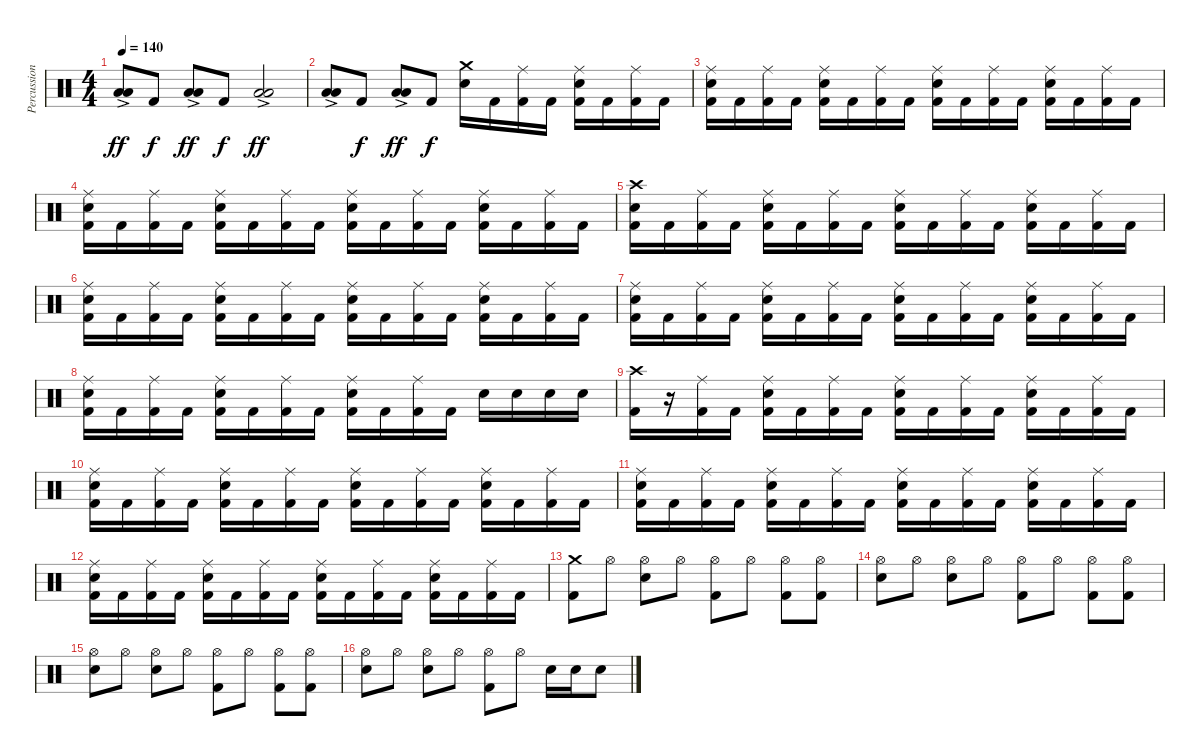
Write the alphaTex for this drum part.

\track ("Percussion" "Percussion") {instrument percussion}
\staff {score}
\articulation defaults
\ts (4 4)
\tempo 140
\clef neutral
\ks c
("Low Tom (hit)" "Low Floor Tom (hit)"{ac}).8{dy ff} "Kick (hit) 2".8{dy f} ("Low Tom (hit)" "Low Floor Tom (hit)"{ac}).8{dy ff} "Kick (hit) 2".8{dy f} ("Low Tom (hit)"{ac} "Low Floor Tom (hit)"{ac}).2{dy ff} |
("Low Tom (hit)" "Low Floor Tom (hit)"{ac}).8 "Kick (hit) 2".8{dy f} ("Low Tom (hit)" "Low Floor Tom (hit)"{ac}).8{dy ff} "Kick (hit) 2".8{dy f} ("Crash medium (hit)" "Electric Snare (hit)").16 "Kick (hit) 2".16 ("Ride (middle)" "Kick (hit) 2").16 "Kick (hit) 2".16 ("Ride (middle)" "Electric Snare (hit)" "Kick (hit) 2").16 "Kick (hit) 2".16 ("Ride (middle)" "Kick (hit) 2").16 "Kick (hit) 2".16 |
("Ride (middle)" "Electric Snare (hit)" "Kick (hit) 2").16 "Kick (hit) 2".16 ("Ride (middle)" "Kick (hit) 2").16 "Kick (hit) 2".16 ("Ride (middle)" "Electric Snare (hit)" "Kick (hit) 2").16 "Kick (hit) 2".16 ("Ride (middle)" "Kick (hit) 2").16 "Kick (hit) 2".16 ("Ride (middle)" "Electric Snare (hit)" "Kick (hit) 2").16 "Kick (hit) 2".16 ("Ride (middle)" "Kick (hit) 2").16 "Kick (hit) 2".16 ("Ride (middle)" "Electric Snare (hit)" "Kick (hit) 2").16 "Kick (hit) 2".16 ("Ride (middle)" "Kick (hit) 2").16 "Kick (hit) 2".16 |
("Ride (middle)" "Electric Snare (hit)" "Kick (hit) 2").16 "Kick (hit) 2".16 ("Ride (middle)" "Kick (hit) 2").16 "Kick (hit) 2".16 ("Ride (middle)" "Electric Snare (hit)" "Kick (hit) 2").16 "Kick (hit) 2".16 ("Ride (middle)" "Kick (hit) 2").16 "Kick (hit) 2".16 ("Ride (middle)" "Electric Snare (hit)" "Kick (hit) 2").16 "Kick (hit) 2".16 ("Ride (middle)" "Kick (hit) 2").16 "Kick (hit) 2".16 ("Ride (middle)" "Electric Snare (hit)" "Kick (hit) 2").16 "Kick (hit) 2".16 ("Ride (middle)" "Kick (hit) 2").16 "Kick (hit) 2".16 |
("Crash high (hit)" "Electric Snare (hit)" "Kick (hit) 2").16 "Kick (hit) 2".16 ("Ride (middle)" "Kick (hit) 2").16 "Kick (hit) 2".16 ("Ride (middle)" "Electric Snare (hit)" "Kick (hit) 2").16 "Kick (hit) 2".16 ("Ride (middle)" "Kick (hit) 2").16 "Kick (hit) 2".16 ("Ride (middle)" "Electric Snare (hit)" "Kick (hit) 2").16 "Kick (hit) 2".16 ("Ride (middle)" "Kick (hit) 2").16 "Kick (hit) 2".16 ("Ride (middle)" "Electric Snare (hit)" "Kick (hit) 2").16 "Kick (hit) 2".16 ("Ride (middle)" "Kick (hit) 2").16 "Kick (hit) 2".16 |
("Ride (middle)" "Electric Snare (hit)" "Kick (hit) 2").16 "Kick (hit) 2".16 ("Ride (middle)" "Kick (hit) 2").16 "Kick (hit) 2".16 ("Ride (middle)" "Electric Snare (hit)" "Kick (hit) 2").16 "Kick (hit) 2".16 ("Ride (middle)" "Kick (hit) 2").16 "Kick (hit) 2".16 ("Ride (middle)" "Electric Snare (hit)" "Kick (hit) 2").16 "Kick (hit) 2".16 ("Ride (middle)" "Kick (hit) 2").16 "Kick (hit) 2".16 ("Ride (middle)" "Electric Snare (hit)" "Kick (hit) 2").16 "Kick (hit) 2".16 ("Ride (middle)" "Kick (hit) 2").16 "Kick (hit) 2".16 |
("Ride (middle)" "Electric Snare (hit)" "Kick (hit) 2").16 "Kick (hit) 2".16 ("Ride (middle)" "Kick (hit) 2").16 "Kick (hit) 2".16 ("Ride (middle)" "Electric Snare (hit)" "Kick (hit) 2").16 "Kick (hit) 2".16 ("Ride (middle)" "Kick (hit) 2").16 "Kick (hit) 2".16 ("Ride (middle)" "Electric Snare (hit)" "Kick (hit) 2").16 "Kick (hit) 2".16 ("Ride (middle)" "Kick (hit) 2").16 "Kick (hit) 2".16 ("Ride (middle)" "Electric Snare (hit)" "Kick (hit) 2").16 "Kick (hit) 2".16 ("Ride (middle)" "Kick (hit) 2").16 "Kick (hit) 2".16 |
("Ride (middle)" "Electric Snare (hit)" "Kick (hit) 2").16 "Kick (hit) 2".16 ("Ride (middle)" "Kick (hit) 2").16 "Kick (hit) 2".16 ("Ride (middle)" "Electric Snare (hit)" "Kick (hit) 2").16 "Kick (hit) 2".16 ("Ride (middle)" "Kick (hit) 2").16 "Kick (hit) 2".16 ("Ride (middle)" "Electric Snare (hit)" "Kick (hit) 2").16 "Kick (hit) 2".16 ("Ride (middle)" "Kick (hit) 2").16 "Kick (hit) 2".16 "Electric Snare (hit)".16 "Electric Snare (hit)".16 "Electric Snare (hit)".16 "Electric Snare (hit)".16 |
("Crash high (hit)" "Kick (hit) 2").16 r.16 ("Ride (middle)" "Kick (hit) 2").16 "Kick (hit) 2".16 ("Ride (middle)" "Electric Snare (hit)" "Kick (hit) 2").16 "Kick (hit) 2".16 ("Ride (middle)" "Kick (hit) 2").16 "Kick (hit) 2".16 ("Ride (middle)" "Electric Snare (hit)" "Kick (hit) 2").16 "Kick (hit) 2".16 ("Ride (middle)" "Kick (hit) 2").16 "Kick (hit) 2".16 ("Ride (middle)" "Electric Snare (hit)" "Kick (hit) 2").16 "Kick (hit) 2".16 ("Ride (middle)" "Kick (hit) 2").16 "Kick (hit) 2".16 |
("Ride (middle)" "Electric Snare (hit)" "Kick (hit) 2").16 "Kick (hit) 2".16 ("Ride (middle)" "Kick (hit) 2").16 "Kick (hit) 2".16 ("Ride (middle)" "Electric Snare (hit)" "Kick (hit) 2").16 "Kick (hit) 2".16 ("Ride (middle)" "Kick (hit) 2").16 "Kick (hit) 2".16 ("Ride (middle)" "Electric Snare (hit)" "Kick (hit) 2").16 "Kick (hit) 2".16 ("Ride (middle)" "Kick (hit) 2").16 "Kick (hit) 2".16 ("Ride (middle)" "Electric Snare (hit)" "Kick (hit) 2").16 "Kick (hit) 2".16 ("Ride (middle)" "Kick (hit) 2").16 "Kick (hit) 2".16 |
("Ride (middle)" "Electric Snare (hit)" "Kick (hit) 2").16 "Kick (hit) 2".16 ("Ride (middle)" "Kick (hit) 2").16 "Kick (hit) 2".16 ("Ride (middle)" "Electric Snare (hit)" "Kick (hit) 2").16 "Kick (hit) 2".16 ("Ride (middle)" "Kick (hit) 2").16 "Kick (hit) 2".16 ("Ride (middle)" "Electric Snare (hit)" "Kick (hit) 2").16 "Kick (hit) 2".16 ("Ride (middle)" "Kick (hit) 2").16 "Kick (hit) 2".16 ("Ride (middle)" "Electric Snare (hit)" "Kick (hit) 2").16 "Kick (hit) 2".16 ("Ride (middle)" "Kick (hit) 2").16 "Kick (hit) 2".16 |
("Ride (middle)" "Electric Snare (hit)" "Kick (hit) 2").16 "Kick (hit) 2".16 ("Ride (middle)" "Kick (hit) 2").16 "Kick (hit) 2".16 ("Ride (middle)" "Electric Snare (hit)" "Kick (hit) 2").16 "Kick (hit) 2".16 ("Ride (middle)" "Kick (hit) 2").16 "Kick (hit) 2".16 ("Ride (middle)" "Electric Snare (hit)" "Kick (hit) 2").16 "Kick (hit) 2".16 ("Ride (middle)" "Kick (hit) 2").16 "Kick (hit) 2".16 ("Ride (middle)" "Electric Snare (hit)" "Kick (hit) 2").16 "Kick (hit) 2".16 ("Ride (middle)" "Kick (hit) 2").16 "Kick (hit) 2".16 |
("Crash medium (hit)" "Kick (hit) 2").8 "Hi-Hat (open)".8 ("Hi-Hat (open)" "Electric Snare (hit)").8 "Hi-Hat (open)".8 ("Hi-Hat (open)" "Kick (hit) 2").8 "Hi-Hat (open)".8 ("Hi-Hat (open)" "Kick (hit) 2").8 ("Hi-Hat (open)" "Kick (hit) 2").8 |
("Hi-Hat (open)" "Electric Snare (hit)").8 "Hi-Hat (open)".8 ("Hi-Hat (open)" "Electric Snare (hit)").8 "Hi-Hat (open)".8 ("Hi-Hat (open)" "Kick (hit) 2").8 "Hi-Hat (open)".8 ("Hi-Hat (open)" "Kick (hit) 2").8 ("Hi-Hat (open)" "Kick (hit) 2").8 |
("Hi-Hat (open)" "Electric Snare (hit)").8 "Hi-Hat (open)".8 ("Hi-Hat (open)" "Electric Snare (hit)").8 "Hi-Hat (open)".8 ("Hi-Hat (open)" "Kick (hit) 2").8 "Hi-Hat (open)".8 ("Hi-Hat (open)" "Kick (hit) 2").8 ("Hi-Hat (open)" "Kick (hit) 2").8 |
("Hi-Hat (open)" "Electric Snare (hit)").8 "Hi-Hat (open)".8 ("Hi-Hat (open)" "Electric Snare (hit)").8 "Hi-Hat (open)".8 ("Hi-Hat (open)" "Kick (hit) 2").8 "Hi-Hat (open)".8 "Electric Snare (hit)".16 "Electric Snare (hit)".16 "Electric Snare (hit)".8
